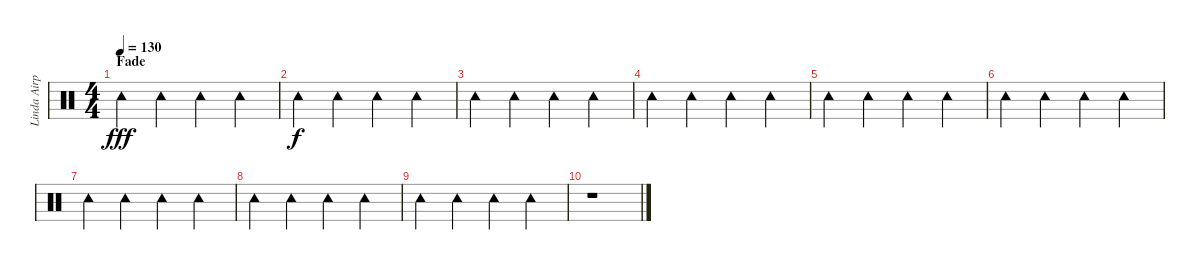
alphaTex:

\track ("Linda Airplane" "Linda Airp") {instrument percussion}
\staff {score}
\articulation defaults
\ts (4 4)
\section ("" "Fade ")
\tempo 130
\clef neutral
\ks c "Tambourine (hit)".4{dy fff} "Tambourine (hit)".4 "Tambourine (hit)".4 "Tambourine (hit)".4
|
"Tambourine (hit)".4{dy f} "Tambourine (hit)".4 "Tambourine (hit)".4 "Tambourine (hit)".4 |
"Tambourine (hit)".4 "Tambourine (hit)".4 "Tambourine (hit)".4 "Tambourine (hit)".4 |
"Tambourine (hit)".4 "Tambourine (hit)".4 "Tambourine (hit)".4 "Tambourine (hit)".4 |
"Tambourine (hit)".4 "Tambourine (hit)".4 "Tambourine (hit)".4 "Tambourine (hit)".4 |
"Tambourine (hit)".4 "Tambourine (hit)".4 "Tambourine (hit)".4 "Tambourine (hit)".4 |
"Tambourine (hit)".4 "Tambourine (hit)".4 "Tambourine (hit)".4 "Tambourine (hit)".4 |
"Tambourine (hit)".4 "Tambourine (hit)".4 "Tambourine (hit)".4 "Tambourine (hit)".4 |
"Tambourine (hit)".4 "Tambourine (hit)".4 "Tambourine (hit)".4 "Tambourine (hit)".4 |
r.1
